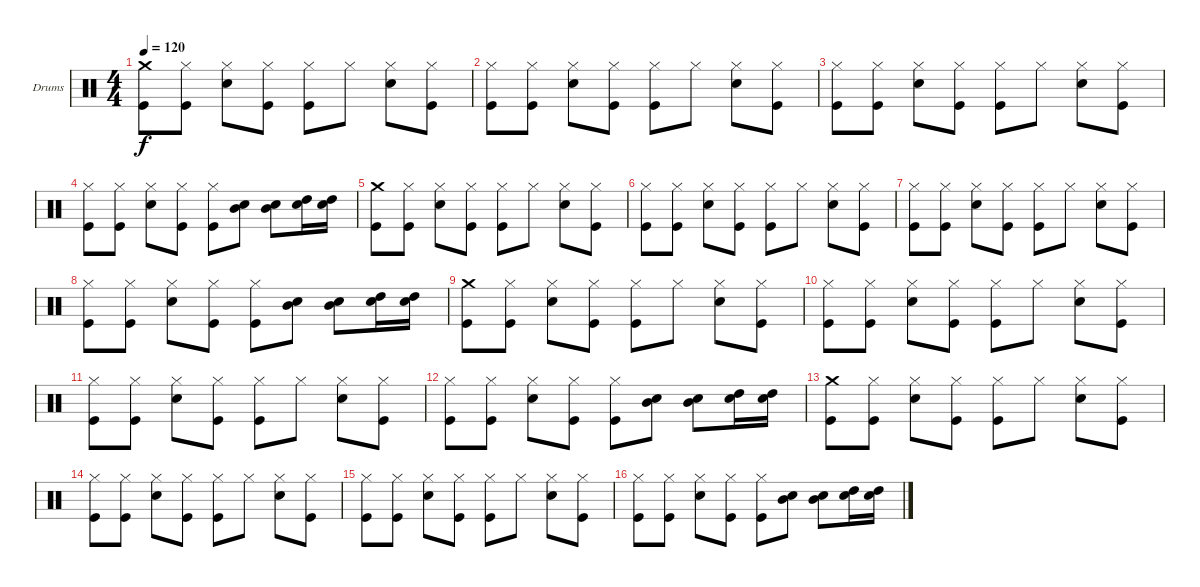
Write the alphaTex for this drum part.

\defaultSystemsLayout 4
\bracketExtendMode groupsimilarinstruments
\firstSystemTrackNameOrientation horizontal
\otherSystemsTrackNameOrientation horizontal
\track ("Stefan Schwarzmann" "Drums") {instrument percussion}
\staff {score}
\articulation defaults
\ts (4 4)
\tempo 120
\clef neutral
\ks c
("Crash medium (hit)" "Kick (hit)").8{dy f} ("Hi-Hat (closed)" "Kick (hit)").8 ("Hi-Hat (closed)" "Snare (hit) 2").8 ("Hi-Hat (closed)" "Kick (hit)").8 ("Hi-Hat (closed)" "Kick (hit)").8 "Hi-Hat (closed)".8 ("Hi-Hat (closed)" "Snare (hit) 2").8 ("Hi-Hat (closed)" "Kick (hit)").8 |
("Hi-Hat (closed)" "Kick (hit)").8 ("Hi-Hat (closed)" "Kick (hit)").8 ("Hi-Hat (closed)" "Snare (hit) 2").8 ("Hi-Hat (closed)" "Kick (hit)").8 ("Hi-Hat (closed)" "Kick (hit)").8 "Hi-Hat (closed)".8 ("Hi-Hat (closed)" "Snare (hit) 2").8 ("Hi-Hat (closed)" "Kick (hit)").8 |
("Hi-Hat (closed)" "Kick (hit)").8 ("Hi-Hat (closed)" "Kick (hit)").8 ("Hi-Hat (closed)" "Snare (hit) 2").8 ("Hi-Hat (closed)" "Kick (hit)").8 ("Hi-Hat (closed)" "Kick (hit)").8 "Hi-Hat (closed)".8 ("Hi-Hat (closed)" "Snare (hit) 2").8 ("Hi-Hat (closed)" "Kick (hit)").8 |
("Hi-Hat (closed)" "Kick (hit)").8 ("Hi-Hat (closed)" "Kick (hit)").8 ("Hi-Hat (closed)" "Snare (hit) 2").8 ("Hi-Hat (closed)" "Kick (hit)").8 ("Hi-Hat (closed)" "Kick (hit)").8 ("Mid Tom (hit)" "Snare (hit) 2").8 ("Mid Tom (hit)" "Snare (hit) 2").8 ("High Tom (hit)" "Snare (hit) 2").16 ("High Tom (hit)" "Snare (hit) 2").16 |
("Crash medium (hit)" "Kick (hit)").8 ("Hi-Hat (closed)" "Kick (hit)").8 ("Hi-Hat (closed)" "Snare (hit) 2").8 ("Hi-Hat (closed)" "Kick (hit)").8 ("Hi-Hat (closed)" "Kick (hit)").8 "Hi-Hat (closed)".8 ("Hi-Hat (closed)" "Snare (hit) 2").8 ("Hi-Hat (closed)" "Kick (hit)").8 |
("Hi-Hat (closed)" "Kick (hit)").8 ("Hi-Hat (closed)" "Kick (hit)").8 ("Hi-Hat (closed)" "Snare (hit) 2").8 ("Hi-Hat (closed)" "Kick (hit)").8 ("Hi-Hat (closed)" "Kick (hit)").8 "Hi-Hat (closed)".8 ("Hi-Hat (closed)" "Snare (hit) 2").8 ("Hi-Hat (closed)" "Kick (hit)").8 |
("Hi-Hat (closed)" "Kick (hit)").8 ("Hi-Hat (closed)" "Kick (hit)").8 ("Hi-Hat (closed)" "Snare (hit) 2").8 ("Hi-Hat (closed)" "Kick (hit)").8 ("Hi-Hat (closed)" "Kick (hit)").8 "Hi-Hat (closed)".8 ("Hi-Hat (closed)" "Snare (hit) 2").8 ("Hi-Hat (closed)" "Kick (hit)").8 |
("Hi-Hat (closed)" "Kick (hit)").8 ("Hi-Hat (closed)" "Kick (hit)").8 ("Hi-Hat (closed)" "Snare (hit) 2").8 ("Hi-Hat (closed)" "Kick (hit)").8 ("Hi-Hat (closed)" "Kick (hit)").8 ("Mid Tom (hit)" "Snare (hit) 2").8 ("Mid Tom (hit)" "Snare (hit) 2").8 ("High Tom (hit)" "Snare (hit) 2").16 ("High Tom (hit)" "Snare (hit) 2").16 |
("Crash medium (hit)" "Kick (hit)").8 ("Hi-Hat (closed)" "Kick (hit)").8 ("Hi-Hat (closed)" "Snare (hit) 2").8 ("Hi-Hat (closed)" "Kick (hit)").8 ("Hi-Hat (closed)" "Kick (hit)").8 "Hi-Hat (closed)".8 ("Hi-Hat (closed)" "Snare (hit) 2").8 ("Hi-Hat (closed)" "Kick (hit)").8 |
("Hi-Hat (closed)" "Kick (hit)").8 ("Hi-Hat (closed)" "Kick (hit)").8 ("Hi-Hat (closed)" "Snare (hit) 2").8 ("Hi-Hat (closed)" "Kick (hit)").8 ("Hi-Hat (closed)" "Kick (hit)").8 "Hi-Hat (closed)".8 ("Hi-Hat (closed)" "Snare (hit) 2").8 ("Hi-Hat (closed)" "Kick (hit)").8 |
("Hi-Hat (closed)" "Kick (hit)").8 ("Hi-Hat (closed)" "Kick (hit)").8 ("Hi-Hat (closed)" "Snare (hit) 2").8 ("Hi-Hat (closed)" "Kick (hit)").8 ("Hi-Hat (closed)" "Kick (hit)").8 "Hi-Hat (closed)".8 ("Hi-Hat (closed)" "Snare (hit) 2").8 ("Hi-Hat (closed)" "Kick (hit)").8 |
("Hi-Hat (closed)" "Kick (hit)").8 ("Hi-Hat (closed)" "Kick (hit)").8 ("Hi-Hat (closed)" "Snare (hit) 2").8 ("Hi-Hat (closed)" "Kick (hit)").8 ("Hi-Hat (closed)" "Kick (hit)").8 ("Mid Tom (hit)" "Snare (hit) 2").8 ("Mid Tom (hit)" "Snare (hit) 2").8 ("High Tom (hit)" "Snare (hit) 2").16 ("High Tom (hit)" "Snare (hit) 2").16 |
("Crash medium (hit)" "Kick (hit)").8 ("Hi-Hat (closed)" "Kick (hit)").8 ("Hi-Hat (closed)" "Snare (hit) 2").8 ("Hi-Hat (closed)" "Kick (hit)").8 ("Hi-Hat (closed)" "Kick (hit)").8 "Hi-Hat (closed)".8 ("Hi-Hat (closed)" "Snare (hit) 2").8 ("Hi-Hat (closed)" "Kick (hit)").8 |
("Hi-Hat (closed)" "Kick (hit)").8 ("Hi-Hat (closed)" "Kick (hit)").8 ("Hi-Hat (closed)" "Snare (hit) 2").8 ("Hi-Hat (closed)" "Kick (hit)").8 ("Hi-Hat (closed)" "Kick (hit)").8 "Hi-Hat (closed)".8 ("Hi-Hat (closed)" "Snare (hit) 2").8 ("Hi-Hat (closed)" "Kick (hit)").8 |
("Hi-Hat (closed)" "Kick (hit)").8 ("Hi-Hat (closed)" "Kick (hit)").8 ("Hi-Hat (closed)" "Snare (hit) 2").8 ("Hi-Hat (closed)" "Kick (hit)").8 ("Hi-Hat (closed)" "Kick (hit)").8 "Hi-Hat (closed)".8 ("Hi-Hat (closed)" "Snare (hit) 2").8 ("Hi-Hat (closed)" "Kick (hit)").8 |
("Hi-Hat (closed)" "Kick (hit)").8 ("Hi-Hat (closed)" "Kick (hit)").8 ("Hi-Hat (closed)" "Snare (hit) 2").8 ("Hi-Hat (closed)" "Kick (hit)").8 ("Hi-Hat (closed)" "Kick (hit)").8 ("Mid Tom (hit)" "Snare (hit) 2").8 ("Mid Tom (hit)" "Snare (hit) 2").8 ("High Tom (hit)" "Snare (hit) 2").16 ("High Tom (hit)" "Snare (hit) 2").16
